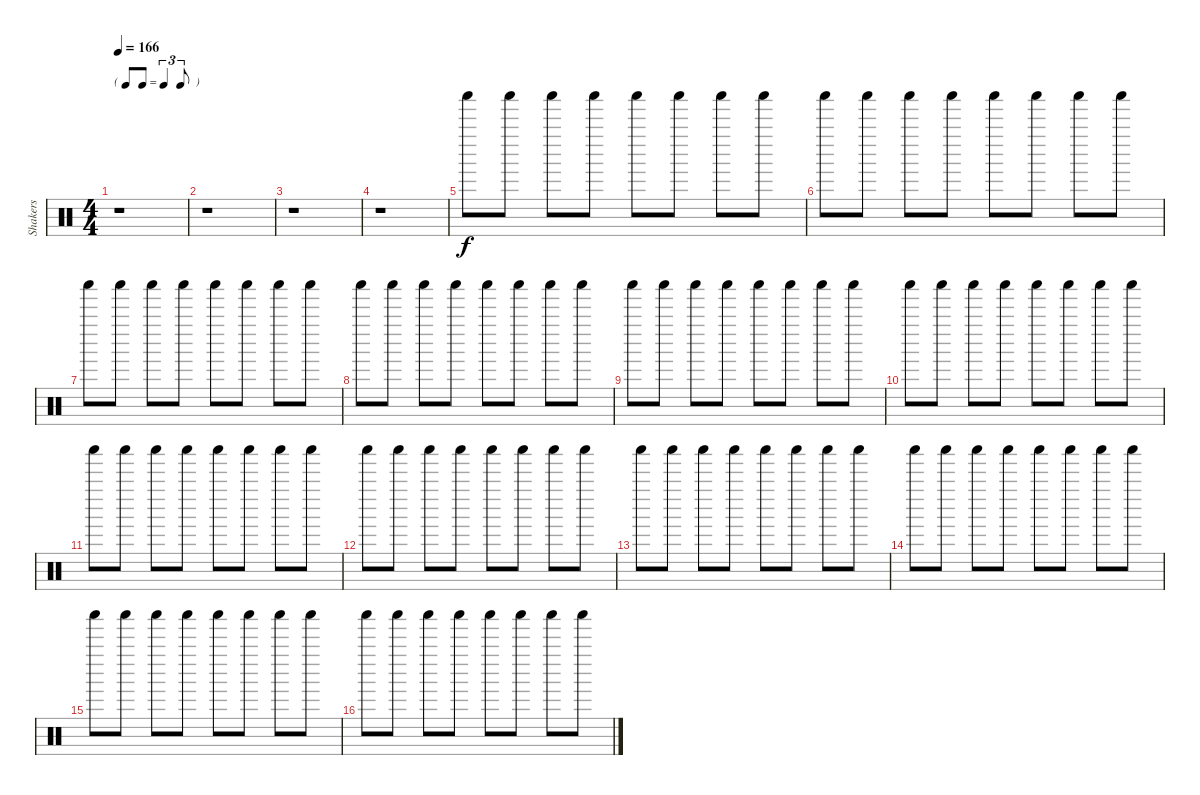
\track ("Shakers" "Shakers") {instrument percussion}
\staff {score}
\articulation defaults
\ts (4 4)
\tf triplet8th
\tempo 166
\clef neutral
\ks c
r.1{dy f} |
r.1 |
r.1 |
r.1 |
"Shaker (hit)".8 "Shaker (hit)".8 "Shaker (hit)".8 "Shaker (hit)".8 "Shaker (hit)".8 "Shaker (hit)".8 "Shaker (hit)".8 "Shaker (hit)".8 |
"Shaker (hit)".8 "Shaker (hit)".8 "Shaker (hit)".8 "Shaker (hit)".8 "Shaker (hit)".8 "Shaker (hit)".8 "Shaker (hit)".8 "Shaker (hit)".8 |
"Shaker (hit)".8 "Shaker (hit)".8 "Shaker (hit)".8 "Shaker (hit)".8 "Shaker (hit)".8 "Shaker (hit)".8 "Shaker (hit)".8 "Shaker (hit)".8 |
"Shaker (hit)".8 "Shaker (hit)".8 "Shaker (hit)".8 "Shaker (hit)".8 "Shaker (hit)".8 "Shaker (hit)".8 "Shaker (hit)".8 "Shaker (hit)".8 |
"Shaker (hit)".8 "Shaker (hit)".8 "Shaker (hit)".8 "Shaker (hit)".8 "Shaker (hit)".8 "Shaker (hit)".8 "Shaker (hit)".8 "Shaker (hit)".8 |
"Shaker (hit)".8 "Shaker (hit)".8 "Shaker (hit)".8 "Shaker (hit)".8 "Shaker (hit)".8 "Shaker (hit)".8 "Shaker (hit)".8 "Shaker (hit)".8 |
"Shaker (hit)".8 "Shaker (hit)".8 "Shaker (hit)".8 "Shaker (hit)".8 "Shaker (hit)".8 "Shaker (hit)".8 "Shaker (hit)".8 "Shaker (hit)".8 |
"Shaker (hit)".8 "Shaker (hit)".8 "Shaker (hit)".8 "Shaker (hit)".8 "Shaker (hit)".8 "Shaker (hit)".8 "Shaker (hit)".8 "Shaker (hit)".8 |
"Shaker (hit)".8 "Shaker (hit)".8 "Shaker (hit)".8 "Shaker (hit)".8 "Shaker (hit)".8 "Shaker (hit)".8 "Shaker (hit)".8 "Shaker (hit)".8 |
"Shaker (hit)".8 "Shaker (hit)".8 "Shaker (hit)".8 "Shaker (hit)".8 "Shaker (hit)".8 "Shaker (hit)".8 "Shaker (hit)".8 "Shaker (hit)".8 |
"Shaker (hit)".8 "Shaker (hit)".8 "Shaker (hit)".8 "Shaker (hit)".8 "Shaker (hit)".8 "Shaker (hit)".8 "Shaker (hit)".8 "Shaker (hit)".8 |
"Shaker (hit)".8 "Shaker (hit)".8 "Shaker (hit)".8 "Shaker (hit)".8 "Shaker (hit)".8 "Shaker (hit)".8 "Shaker (hit)".8 "Shaker (hit)".8
